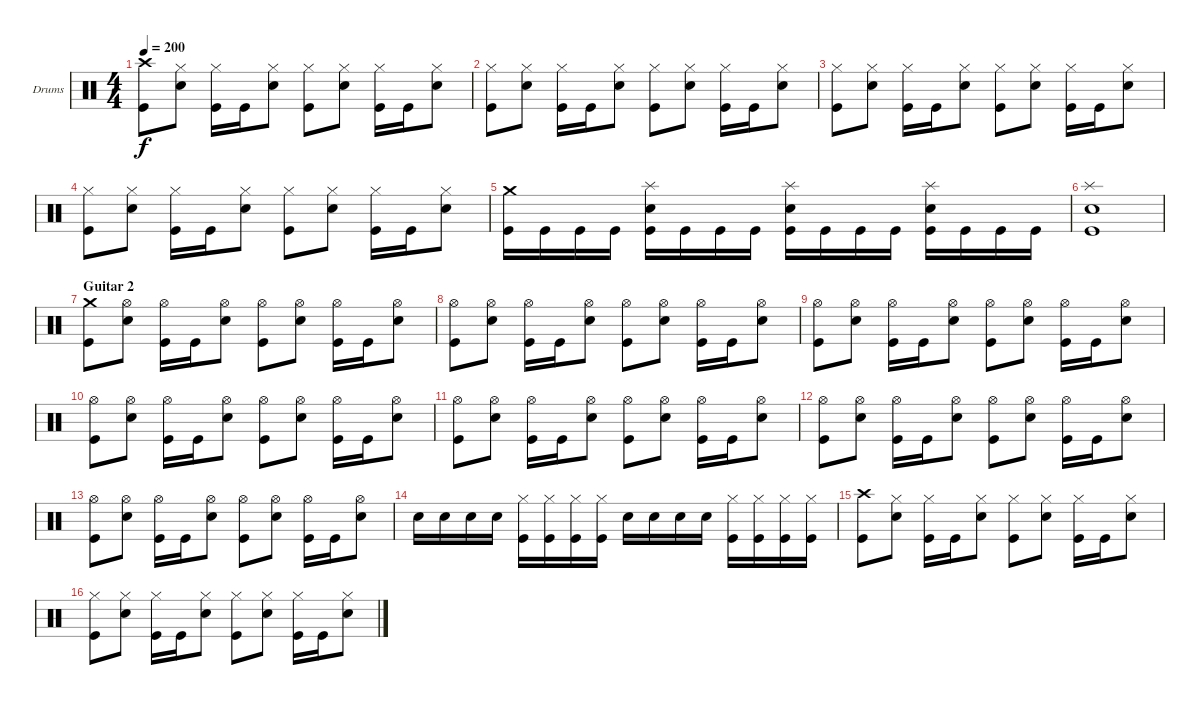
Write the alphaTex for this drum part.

\bracketExtendMode groupsimilarinstruments
\firstSystemTrackNameOrientation horizontal
\otherSystemsTrackNameOrientation horizontal
\track ("Drumkit" "Drums") {instrument percussion}
\staff {score}
\articulation defaults
\ts (4 4)
\tempo 200
\clef neutral
\ks aminor
("Kick (hit)" "Crash high (hit)").8{dy f} ("Snare (hit) 2" "Hi-Hat (closed)").8 ("Kick (hit)" "Hi-Hat (closed)").16 "Kick (hit)".16 ("Snare (hit) 2" "Hi-Hat (closed)").8 ("Kick (hit)" "Hi-Hat (closed)").8 ("Snare (hit) 2" "Hi-Hat (closed)").8 ("Kick (hit)" "Hi-Hat (closed)").16 "Kick (hit)".16 ("Snare (hit) 2" "Hi-Hat (closed)").8 |
("Kick (hit)" "Hi-Hat (closed)").8 ("Snare (hit) 2" "Hi-Hat (closed)").8 ("Kick (hit)" "Hi-Hat (closed)").16 "Kick (hit)".16 ("Snare (hit) 2" "Hi-Hat (closed)").8 ("Kick (hit)" "Hi-Hat (closed)").8 ("Snare (hit) 2" "Hi-Hat (closed)").8 ("Kick (hit)" "Hi-Hat (closed)").16 "Kick (hit)".16 ("Snare (hit) 2" "Hi-Hat (closed)").8 |
("Kick (hit)" "Hi-Hat (closed)").8 ("Snare (hit) 2" "Hi-Hat (closed)").8 ("Kick (hit)" "Hi-Hat (closed)").16 "Kick (hit)".16 ("Snare (hit) 2" "Hi-Hat (closed)").8 ("Kick (hit)" "Hi-Hat (closed)").8 ("Snare (hit) 2" "Hi-Hat (closed)").8 ("Kick (hit)" "Hi-Hat (closed)").16 "Kick (hit)".16 ("Snare (hit) 2" "Hi-Hat (closed)").8 |
("Kick (hit)" "Hi-Hat (closed)").8 ("Snare (hit) 2" "Hi-Hat (closed)").8 ("Kick (hit)" "Hi-Hat (closed)").16 "Kick (hit)".16 ("Snare (hit) 2" "Hi-Hat (closed)").8 ("Kick (hit)" "Hi-Hat (closed)").8 ("Snare (hit) 2" "Hi-Hat (closed)").8 ("Kick (hit)" "Hi-Hat (closed)").16 "Kick (hit)".16 ("Snare (hit) 2" "Hi-Hat (closed)").8 |
("Kick (hit)" "Crash medium (hit)").16 "Kick (hit)".16 "Kick (hit)".16 "Kick (hit)".16 ("Kick (hit)" "Snare (hit) 2" "Splash (hit)").16 "Kick (hit)".16 "Kick (hit)".16 "Kick (hit)".16 ("Kick (hit)" "Snare (hit) 2" "Splash (hit)").16 "Kick (hit)".16 "Kick (hit)".16 "Kick (hit)".16 ("Kick (hit)" "Snare (hit) 2" "Splash (hit)").16 "Kick (hit)".16 "Kick (hit)".16 "Kick (hit)".16 |
("Kick (hit)" "Snare (hit) 2" "Splash (hit)").1 |
\section ("" "Guitar 2")
("Kick (hit)" "Crash medium (hit)").8 ("Snare (hit) 2" "Hi-Hat (open)").8 ("Kick (hit)" "Hi-Hat (open)").16 "Kick (hit)".16 ("Snare (hit) 2" "Hi-Hat (open)").8 ("Kick (hit)" "Hi-Hat (open)").8 ("Snare (hit) 2" "Hi-Hat (open)").8 ("Kick (hit)" "Hi-Hat (open)").16 "Kick (hit)".16 ("Snare (hit) 2" "Hi-Hat (open)").8 |
("Kick (hit)" "Hi-Hat (open)").8 ("Snare (hit) 2" "Hi-Hat (open)").8 ("Kick (hit)" "Hi-Hat (open)").16 "Kick (hit)".16 ("Snare (hit) 2" "Hi-Hat (open)").8 ("Kick (hit)" "Hi-Hat (open)").8 ("Snare (hit) 2" "Hi-Hat (open)").8 ("Kick (hit)" "Hi-Hat (open)").16 "Kick (hit)".16 ("Snare (hit) 2" "Hi-Hat (open)").8 |
("Kick (hit)" "Hi-Hat (open)").8 ("Snare (hit) 2" "Hi-Hat (open)").8 ("Kick (hit)" "Hi-Hat (open)").16 "Kick (hit)".16 ("Snare (hit) 2" "Hi-Hat (open)").8 ("Kick (hit)" "Hi-Hat (open)").8 ("Snare (hit) 2" "Hi-Hat (open)").8 ("Kick (hit)" "Hi-Hat (open)").16 "Kick (hit)".16 ("Snare (hit) 2" "Hi-Hat (open)").8 |
("Kick (hit)" "Hi-Hat (open)").8 ("Snare (hit) 2" "Hi-Hat (open)").8 ("Kick (hit)" "Hi-Hat (open)").16 "Kick (hit)".16 ("Snare (hit) 2" "Hi-Hat (open)").8 ("Kick (hit)" "Hi-Hat (open)").8 ("Snare (hit) 2" "Hi-Hat (open)").8 ("Kick (hit)" "Hi-Hat (open)").16 "Kick (hit)".16 ("Snare (hit) 2" "Hi-Hat (open)").8 |
("Kick (hit)" "Hi-Hat (open)").8 ("Snare (hit) 2" "Hi-Hat (open)").8 ("Kick (hit)" "Hi-Hat (open)").16 "Kick (hit)".16 ("Snare (hit) 2" "Hi-Hat (open)").8 ("Kick (hit)" "Hi-Hat (open)").8 ("Snare (hit) 2" "Hi-Hat (open)").8 ("Kick (hit)" "Hi-Hat (open)").16 "Kick (hit)".16 ("Snare (hit) 2" "Hi-Hat (open)").8 |
("Kick (hit)" "Hi-Hat (open)").8 ("Snare (hit) 2" "Hi-Hat (open)").8 ("Kick (hit)" "Hi-Hat (open)").16 "Kick (hit)".16 ("Snare (hit) 2" "Hi-Hat (open)").8 ("Kick (hit)" "Hi-Hat (open)").8 ("Snare (hit) 2" "Hi-Hat (open)").8 ("Kick (hit)" "Hi-Hat (open)").16 "Kick (hit)".16 ("Snare (hit) 2" "Hi-Hat (open)").8 |
("Kick (hit)" "Hi-Hat (open)").8 ("Snare (hit) 2" "Hi-Hat (open)").8 ("Kick (hit)" "Hi-Hat (open)").16 "Kick (hit)".16 ("Snare (hit) 2" "Hi-Hat (open)").8 ("Kick (hit)" "Hi-Hat (open)").8 ("Snare (hit) 2" "Hi-Hat (open)").8 ("Kick (hit)" "Hi-Hat (open)").16 "Kick (hit)".16 ("Snare (hit) 2" "Hi-Hat (open)").8 |
"Snare (hit) 2".16 "Snare (hit) 2".16 "Snare (hit) 2".16 "Snare (hit) 2".16 ("Kick (hit)" "Hi-Hat (closed)").16 ("Kick (hit)" "Hi-Hat (closed)").16 ("Kick (hit)" "Hi-Hat (closed)").16 ("Kick (hit)" "Hi-Hat (closed)").16 "Snare (hit) 2".16 "Snare (hit) 2".16 "Snare (hit) 2".16 "Snare (hit) 2".16 ("Kick (hit)" "Hi-Hat (closed)").16 ("Kick (hit)" "Hi-Hat (closed)").16 ("Kick (hit)" "Hi-Hat (closed)").16 ("Kick (hit)" "Hi-Hat (closed)").16 |
("Kick (hit)" "Crash high (hit)").8 ("Snare (hit) 2" "Hi-Hat (closed)").8 ("Kick (hit)" "Hi-Hat (closed)").16 "Kick (hit)".16 ("Snare (hit) 2" "Hi-Hat (closed)").8 ("Kick (hit)" "Hi-Hat (closed)").8 ("Snare (hit) 2" "Hi-Hat (closed)").8 ("Kick (hit)" "Hi-Hat (closed)").16 "Kick (hit)".16 ("Snare (hit) 2" "Hi-Hat (closed)").8 |
("Kick (hit)" "Hi-Hat (closed)").8 ("Snare (hit) 2" "Hi-Hat (closed)").8 ("Kick (hit)" "Hi-Hat (closed)").16 "Kick (hit)".16 ("Snare (hit) 2" "Hi-Hat (closed)").8 ("Kick (hit)" "Hi-Hat (closed)").8 ("Snare (hit) 2" "Hi-Hat (closed)").8 ("Kick (hit)" "Hi-Hat (closed)").16 "Kick (hit)".16 ("Snare (hit) 2" "Hi-Hat (closed)").8
